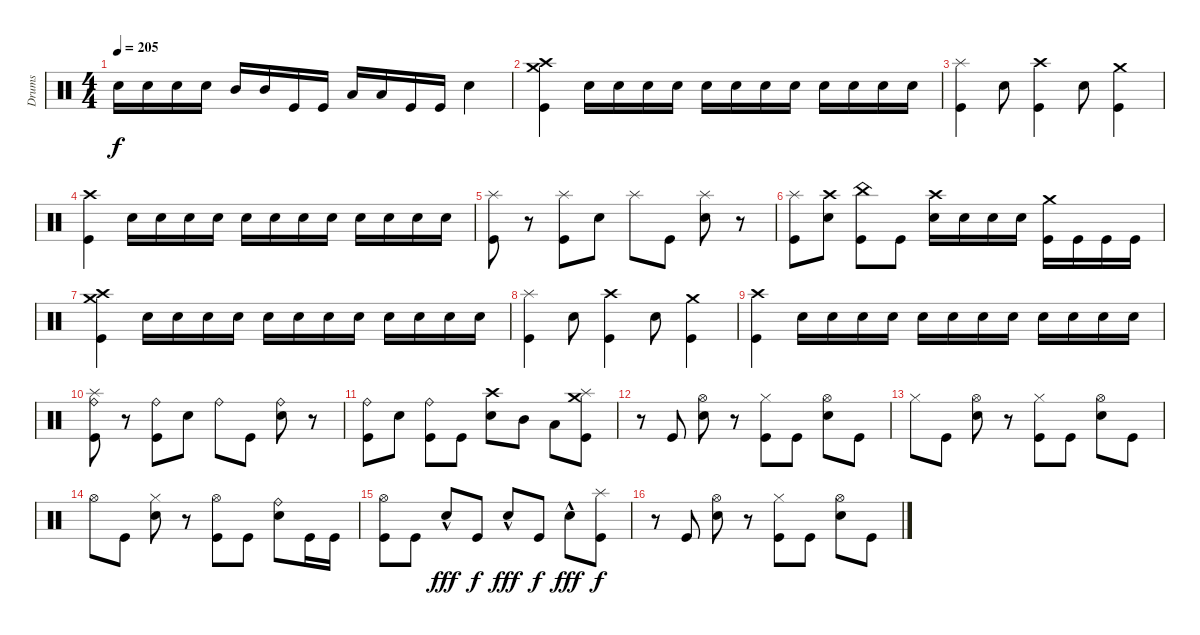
\track ("Drums" "Drums") {instrument percussion}
\staff {score}
\articulation defaults
\ts (4 4)
\tempo 205
\clef neutral
\ks c "Electric Snare (hit)".16{dy f} "Electric Snare (hit)".16 "Electric Snare (hit)".16 "Electric Snare (hit)".16 "Mid Tom (hit)".16 "Mid Tom (hit)".16 "Kick (hit)".16 "Kick (hit)".16 "Low Tom (hit)".16 "Low Tom (hit)".16 "Kick (hit)".16 "Kick (hit)".16 "Electric Snare (hit)".4
|
("Crash high (hit)" "Crash medium (hit)" "Kick (hit)").4 "Electric Snare (hit)".16 "Electric Snare (hit)".16 "Electric Snare (hit)".16 "Electric Snare (hit)".16 "Electric Snare (hit)".16 "Electric Snare (hit)".16 "Electric Snare (hit)".16 "Electric Snare (hit)".16 "Electric Snare (hit)".16 "Electric Snare (hit)".16 "Electric Snare (hit)".16 "Electric Snare (hit)".16 |
("Splash (hit)" "Kick (hit)").4 "Electric Snare (hit)".8 ("Crash high (hit)" "Kick (hit)").4 "Electric Snare (hit)".8 ("Crash medium (hit)" "Kick (hit)").4 |
("Crash high (hit)" "Kick (hit)").4 "Electric Snare (hit)".16 "Electric Snare (hit)".16 "Electric Snare (hit)".16 "Electric Snare (hit)".16 "Electric Snare (hit)".16 "Electric Snare (hit)".16 "Electric Snare (hit)".16 "Electric Snare (hit)".16 "Electric Snare (hit)".16 "Electric Snare (hit)".16 "Electric Snare (hit)".16 "Electric Snare (hit)".16 |
("Splash (hit)" "Kick (hit)").8 r.8 ("Splash (hit)" "Kick (hit)").8 "Electric Snare (hit)".8 "Splash (hit)".8 "Kick (hit)".8 ("Electric Snare (hit)" "Splash (hit)").8 r.8 |
("Splash (hit)" "Kick (hit)").8 ("Electric Snare (hit)" "Crash high (hit)").8 ("China (hit)" "Kick (hit)").8 "Kick (hit)".8 ("Electric Snare (hit)" "Crash high (hit)").16 "Electric Snare (hit)".16 "Electric Snare (hit)".16 "Electric Snare (hit)".16 ("Crash medium (hit)" "Kick (hit)").16 "Kick (hit)".16 "Kick (hit)".16 "Kick (hit)".16 |
("Crash high (hit)" "Crash medium (hit)" "Kick (hit)").4 "Electric Snare (hit)".16 "Electric Snare (hit)".16 "Electric Snare (hit)".16 "Electric Snare (hit)".16 "Electric Snare (hit)".16 "Electric Snare (hit)".16 "Electric Snare (hit)".16 "Electric Snare (hit)".16 "Electric Snare (hit)".16 "Electric Snare (hit)".16 "Electric Snare (hit)".16 "Electric Snare (hit)".16 |
("Splash (hit)" "Kick (hit)").4 "Electric Snare (hit)".8 ("Crash high (hit)" "Kick (hit)").4 "Electric Snare (hit)".8 ("Crash medium (hit)" "Kick (hit)").4 |
("Crash high (hit)" "Kick (hit)").4 "Electric Snare (hit)".16 "Electric Snare (hit)".16 "Electric Snare (hit)".16 "Electric Snare (hit)".16 "Electric Snare (hit)".16 "Electric Snare (hit)".16 "Electric Snare (hit)".16 "Electric Snare (hit)".16 "Electric Snare (hit)".16 "Electric Snare (hit)".16 "Electric Snare (hit)".16 "Electric Snare (hit)".16 |
("Ride (bell)" "Splash (hit)" "Kick (hit)").8 r.8 ("Ride (bell)" "Kick (hit)").8 "Electric Snare (hit)".8 "Ride (bell)".8 "Kick (hit)".8 ("Electric Snare (hit)" "Ride (bell)").8 r.8 |
("Ride (bell)" "Kick (hit)").8 "Electric Snare (hit)".8 ("Ride (bell)" "Kick (hit)").8 "Kick (hit)".8 ("Electric Snare (hit)" "Crash high (hit)").8 "Mid Tom (hit)".8 "Low Tom (hit)".8 ("Splash (hit)" "Crash medium (hit)" "Kick (hit)").8 |
r.8 "Kick (hit)".8 ("Electric Snare (hit)" "Hi-Hat (open)").8 r.8 ("Hi-Hat (closed)" "Kick (hit)").8 "Kick (hit)".8 ("Electric Snare (hit)" "Hi-Hat (open)").8 "Kick (hit)".8 |
"Hi-Hat (closed)".8 "Kick (hit)".8 ("Electric Snare (hit)" "Hi-Hat (open)").8 r.8 ("Hi-Hat (closed)" "Kick (hit)").8 "Kick (hit)".8 ("Electric Snare (hit)" "Hi-Hat (open)").8 "Kick (hit)".8 |
"Hi-Hat (open)".8 "Kick (hit)".8 ("Electric Snare (hit)" "Hi-Hat (closed)").8 r.8 ("Hi-Hat (open)" "Kick (hit)").8 "Kick (hit)".8 ("Electric Snare (hit)" "Ride (bell)").8 "Kick (hit)".16 "Kick (hit)".16 |
("Hi-Hat (open)" "Kick (hit)").8 "Kick (hit)".8 "Electric Snare (hit)"{hac}.8{dy fff} "Kick (hit)".8{dy f} "Electric Snare (hit)"{hac}.8{dy fff} "Kick (hit)".8{dy f} "Electric Snare (hit)"{hac}.8{dy fff} ("Splash (hit)" "Kick (hit)").8{dy f} |
r.8 "Kick (hit)".8 ("Electric Snare (hit)" "Hi-Hat (open)").8 r.8 ("Hi-Hat (closed)" "Kick (hit)").8 "Kick (hit)".8 ("Electric Snare (hit)" "Hi-Hat (open)").8 "Kick (hit)".8
